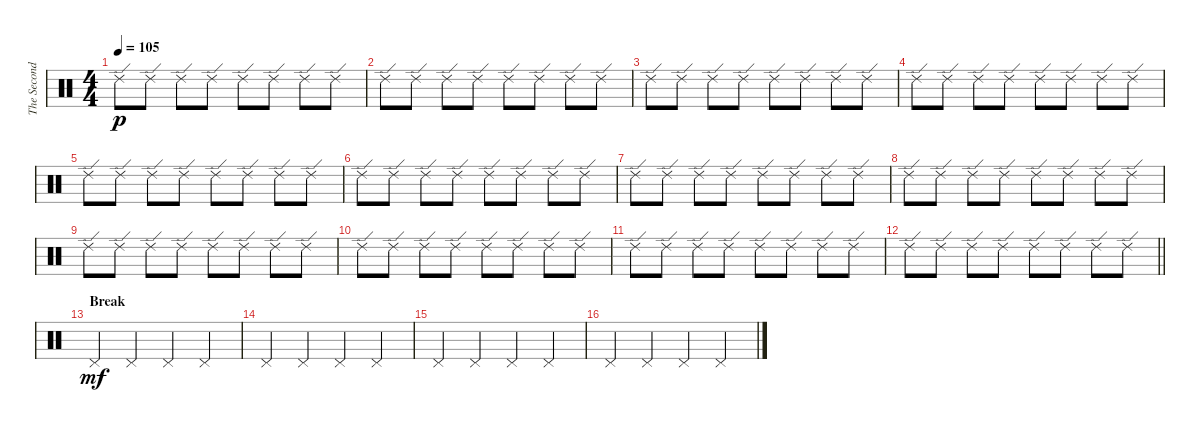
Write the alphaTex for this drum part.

\track ("The Second Drummer" "The Second") {instrument percussion}
\staff {score}
\articulation defaults
\ts (4 4)
\tempo 105
\clef neutral
\ks c "Ride (edge) 2".8{dy p} "Ride (edge) 2".8 "Ride (edge) 2".8 "Ride (edge) 2".8 "Ride (edge) 2".8 "Ride (edge) 2".8 "Ride (edge) 2".8 "Ride (edge) 2".8
|
"Ride (edge) 2".8 "Ride (edge) 2".8 "Ride (edge) 2".8 "Ride (edge) 2".8 "Ride (edge) 2".8 "Ride (edge) 2".8 "Ride (edge) 2".8 "Ride (edge) 2".8 |
"Ride (edge) 2".8 "Ride (edge) 2".8 "Ride (edge) 2".8 "Ride (edge) 2".8 "Ride (edge) 2".8 "Ride (edge) 2".8 "Ride (edge) 2".8 "Ride (edge) 2".8 |
"Ride (edge) 2".8 "Ride (edge) 2".8 "Ride (edge) 2".8 "Ride (edge) 2".8 "Ride (edge) 2".8 "Ride (edge) 2".8 "Ride (edge) 2".8 "Ride (edge) 2".8 |
"Ride (edge) 2".8 "Ride (edge) 2".8 "Ride (edge) 2".8 "Ride (edge) 2".8 "Ride (edge) 2".8 "Ride (edge) 2".8 "Ride (edge) 2".8 "Ride (edge) 2".8 |
"Ride (edge) 2".8 "Ride (edge) 2".8 "Ride (edge) 2".8 "Ride (edge) 2".8 "Ride (edge) 2".8 "Ride (edge) 2".8 "Ride (edge) 2".8 "Ride (edge) 2".8 |
"Ride (edge) 2".8 "Ride (edge) 2".8 "Ride (edge) 2".8 "Ride (edge) 2".8 "Ride (edge) 2".8 "Ride (edge) 2".8 "Ride (edge) 2".8 "Ride (edge) 2".8 |
"Ride (edge) 2".8 "Ride (edge) 2".8 "Ride (edge) 2".8 "Ride (edge) 2".8 "Ride (edge) 2".8 "Ride (edge) 2".8 "Ride (edge) 2".8 "Ride (edge) 2".8 |
"Ride (edge) 2".8 "Ride (edge) 2".8 "Ride (edge) 2".8 "Ride (edge) 2".8 "Ride (edge) 2".8 "Ride (edge) 2".8 "Ride (edge) 2".8 "Ride (edge) 2".8 |
"Ride (edge) 2".8 "Ride (edge) 2".8 "Ride (edge) 2".8 "Ride (edge) 2".8 "Ride (edge) 2".8 "Ride (edge) 2".8 "Ride (edge) 2".8 "Ride (edge) 2".8 |
"Ride (edge) 2".8 "Ride (edge) 2".8 "Ride (edge) 2".8 "Ride (edge) 2".8 "Ride (edge) 2".8 "Ride (edge) 2".8 "Ride (edge) 2".8 "Ride (edge) 2".8 |
\barLineRight lightlight "Ride (edge) 2".8 "Ride (edge) 2".8 "Ride (edge) 2".8 "Ride (edge) 2".8 "Ride (edge) 2".8 "Ride (edge) 2".8 "Ride (edge) 2".8 "Ride (edge) 2".8
|
\section ("" "Break")
"Pedal Hi-Hat (hit)".4{dy mf} "Pedal Hi-Hat (hit)".4 "Pedal Hi-Hat (hit)".4 "Pedal Hi-Hat (hit)".4 |
"Pedal Hi-Hat (hit)".4 "Pedal Hi-Hat (hit)".4 "Pedal Hi-Hat (hit)".4 "Pedal Hi-Hat (hit)".4 |
"Pedal Hi-Hat (hit)".4 "Pedal Hi-Hat (hit)".4 "Pedal Hi-Hat (hit)".4 "Pedal Hi-Hat (hit)".4 |
"Pedal Hi-Hat (hit)".4 "Pedal Hi-Hat (hit)".4 "Pedal Hi-Hat (hit)".4 "Pedal Hi-Hat (hit)".4
